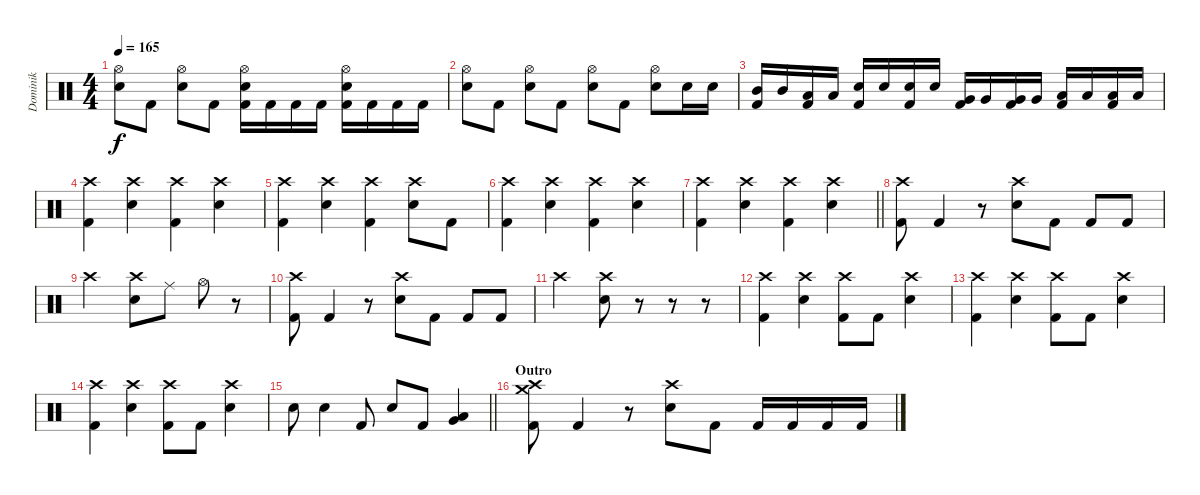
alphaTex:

\track ("Dominik" "Dominik") {instrument percussion}
\staff {score}
\articulation defaults
\ts (4 4)
\tempo 165
\clef neutral
\ks c
("Hi-Hat (open)" "Electric Snare (hit)").8{dy f} "Kick (hit) 2".8 ("Hi-Hat (open)" "Electric Snare (hit)").8 "Kick (hit) 2".8 ("Hi-Hat (open)" "Electric Snare (hit)" "Kick (hit) 2").16 "Kick (hit) 2".16 "Kick (hit) 2".16 "Kick (hit) 2".16 ("Hi-Hat (open)" "Electric Snare (hit)" "Kick (hit) 2").16 "Kick (hit) 2".16 "Kick (hit) 2".16 "Kick (hit) 2".16 |
("Hi-Hat (open)" "Electric Snare (hit)").8 "Kick (hit) 2".8 ("Hi-Hat (open)" "Electric Snare (hit)").8 "Kick (hit) 2".8 ("Hi-Hat (open)" "Electric Snare (hit)").8 "Kick (hit) 2".8 ("Hi-Hat (open)" "Electric Snare (hit)").8 "Electric Snare (hit)".16 "Electric Snare (hit)".16 |
("Mid Tom (hit)" "Kick (hit) 2").16 "Mid Tom (hit)".16 ("Low Tom (hit)" "Kick (hit) 2").16 "Low Tom (hit)".16 ("Electric Snare (hit)" "Kick (hit) 2").16 "Electric Snare (hit)".16 ("Electric Snare (hit)" "Kick (hit) 2").16 "Electric Snare (hit)".16 ("Very Low Tom (hit)" "Kick (hit) 2").16 "Very Low Tom (hit)".16 ("Very Low Tom (hit)" "Kick (hit) 2").16 "Very Low Tom (hit)".16 ("Low Floor Tom (hit)" "Kick (hit) 2").16 "Low Floor Tom (hit)".16 ("Low Floor Tom (hit)" "Kick (hit) 2").16 "Low Floor Tom (hit)".16 |
("Crash high (hit)" "Kick (hit) 2").4 ("Crash high (hit)" "Electric Snare (hit)").4 ("Crash high (hit)" "Kick (hit) 2").4 ("Crash high (hit)" "Electric Snare (hit)").4 |
("Crash high (hit)" "Kick (hit) 2").4 ("Crash high (hit)" "Electric Snare (hit)").4 ("Crash high (hit)" "Kick (hit) 2").4 ("Crash high (hit)" "Electric Snare (hit)").8 "Kick (hit) 2".8 |
("Crash high (hit)" "Kick (hit) 2").4 ("Crash high (hit)" "Electric Snare (hit)").4 ("Crash high (hit)" "Kick (hit) 2").4 ("Crash high (hit)" "Electric Snare (hit)").4 |
\barLineRight lightlight
("Crash high (hit)" "Kick (hit) 2").4 ("Crash high (hit)" "Electric Snare (hit)").4 ("Crash high (hit)" "Kick (hit) 2").4 ("Crash high (hit)" "Electric Snare (hit)").4 |
("Crash high (hit)" "Kick (hit) 2").8 "Kick (hit) 2".4 r.8 ("Crash high (hit)" "Electric Snare (hit)").8 "Kick (hit) 2".8 "Kick (hit) 2".8 "Kick (hit) 2".8 |
"Crash high (hit)".2 ("Crash high (hit)" "Electric Snare (hit)").8 "Ride (middle)".8 "Hi-Hat (open)".8 r.8 |
("Crash high (hit)" "Kick (hit) 2").8 "Kick (hit) 2".4 r.8 ("Crash high (hit)" "Electric Snare (hit)").8 "Kick (hit) 2".8 "Kick (hit) 2".8 "Kick (hit) 2".8 |
"Crash high (hit)".2 ("Crash high (hit)" "Electric Snare (hit)").8 r.8 r.8 r.8 |
("Crash high (hit)" "Kick (hit) 2").4 ("Crash high (hit)" "Electric Snare (hit)").4 ("Crash high (hit)" "Kick (hit) 2").8 "Kick (hit) 2".8 ("Crash high (hit)" "Electric Snare (hit)").4 |
("Crash high (hit)" "Kick (hit) 2").4 ("Crash high (hit)" "Electric Snare (hit)").4 ("Crash high (hit)" "Kick (hit) 2").8 "Kick (hit) 2".8 ("Crash high (hit)" "Electric Snare (hit)").4 |
("Crash high (hit)" "Kick (hit) 2").4 ("Crash high (hit)" "Electric Snare (hit)").4 ("Crash high (hit)" "Kick (hit) 2").8 "Kick (hit) 2".8 ("Crash high (hit)" "Electric Snare (hit)").4 |
\barLineRight lightlight "Electric Snare (hit)".8 "Electric Snare (hit)".4 "Kick (hit) 2".8 "Electric Snare (hit)".8 "Kick (hit) 2".8
("Low Floor Tom (hit)" "Very Low Tom (hit)").4 |
\section ("" "Outro")
("Crash high (hit)" "Crash medium (hit)" "Kick (hit) 2").8 "Kick (hit) 2".4 r.8 ("Crash high (hit)" "Electric Snare (hit)").8 "Kick (hit) 2".8 "Kick (hit) 2".16 "Kick (hit) 2".16 "Kick (hit) 2".16 "Kick (hit) 2".16
